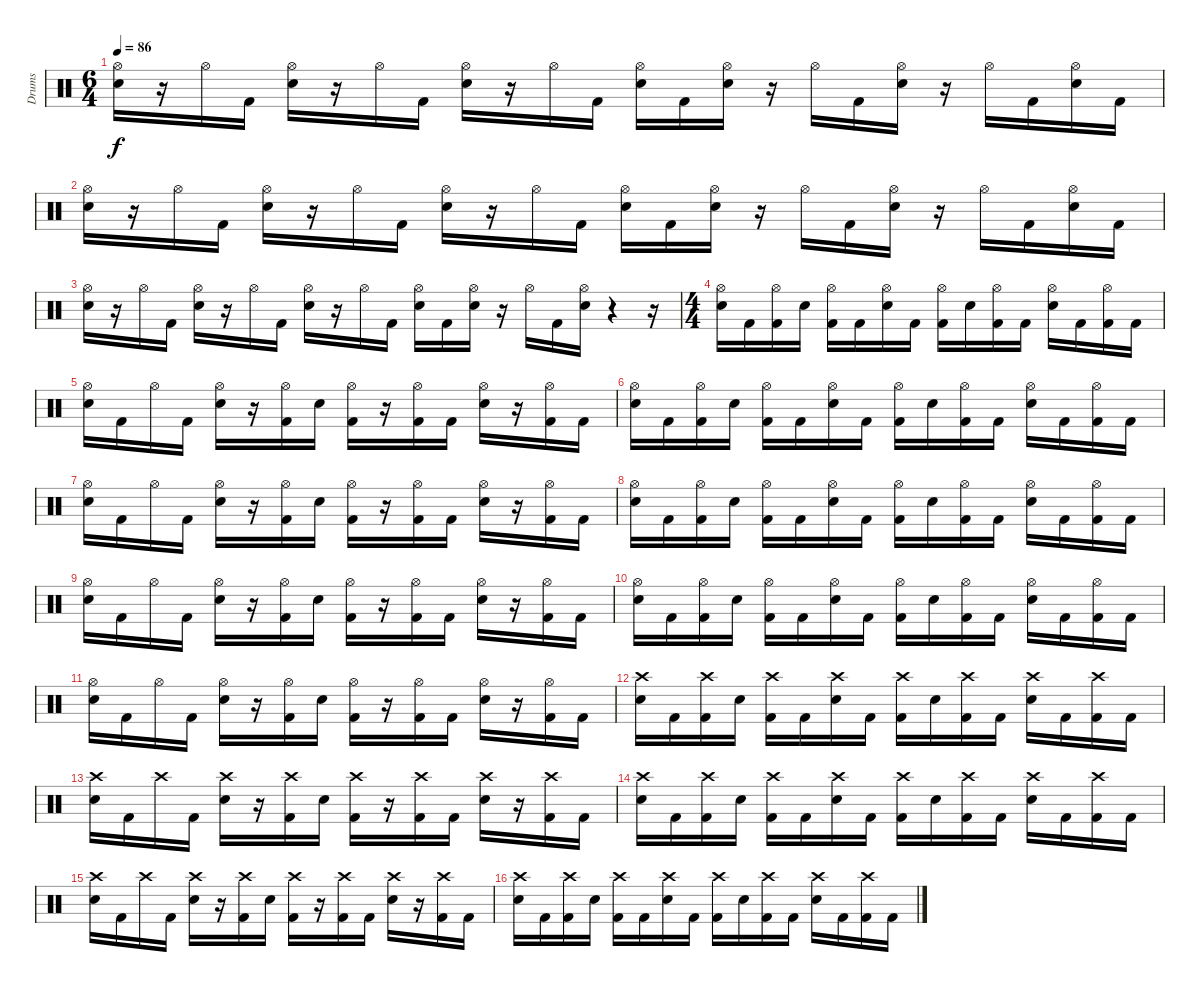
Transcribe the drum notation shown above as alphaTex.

\track ("Drums" "Drums") {instrument percussion}
\staff {score}
\articulation defaults
\ts (6 4)
\tempo 86
\clef neutral
\ks c
("Hi-Hat (open)" "Electric Snare (hit)").16{dy f} r.16 "Hi-Hat (open)".16 "Kick (hit) 2".16 ("Hi-Hat (open)" "Electric Snare (hit)").16 r.16 "Hi-Hat (open)".16 "Kick (hit) 2".16 ("Hi-Hat (open)" "Electric Snare (hit)").16 r.16 "Hi-Hat (open)".16 "Kick (hit) 2".16 ("Hi-Hat (open)" "Electric Snare (hit)").16 "Kick (hit) 2".16 ("Hi-Hat (open)" "Electric Snare (hit)").16 r.16 "Hi-Hat (open)".16 "Kick (hit) 2".16 ("Hi-Hat (open)" "Electric Snare (hit)").16 r.16 "Hi-Hat (open)".16 "Kick (hit) 2".16 ("Hi-Hat (open)" "Electric Snare (hit)").16 "Kick (hit) 2".16 |
("Hi-Hat (open)" "Electric Snare (hit)").16 r.16 "Hi-Hat (open)".16 "Kick (hit) 2".16 ("Hi-Hat (open)" "Electric Snare (hit)").16 r.16 "Hi-Hat (open)".16 "Kick (hit) 2".16 ("Hi-Hat (open)" "Electric Snare (hit)").16 r.16 "Hi-Hat (open)".16 "Kick (hit) 2".16 ("Hi-Hat (open)" "Electric Snare (hit)").16 "Kick (hit) 2".16 ("Hi-Hat (open)" "Electric Snare (hit)").16 r.16 "Hi-Hat (open)".16 "Kick (hit) 2".16 ("Hi-Hat (open)" "Electric Snare (hit)").16 r.16 "Hi-Hat (open)".16 "Kick (hit) 2".16 ("Hi-Hat (open)" "Electric Snare (hit)").16 "Kick (hit) 2".16 |
("Hi-Hat (open)" "Electric Snare (hit)").16 r.16 "Hi-Hat (open)".16 "Kick (hit) 2".16 ("Hi-Hat (open)" "Electric Snare (hit)").16 r.16 "Hi-Hat (open)".16 "Kick (hit) 2".16 ("Hi-Hat (open)" "Electric Snare (hit)").16 r.16 "Hi-Hat (open)".16 "Kick (hit) 2".16 ("Hi-Hat (open)" "Electric Snare (hit)").16 "Kick (hit) 2".16 ("Hi-Hat (open)" "Electric Snare (hit)").16 r.16 "Hi-Hat (open)".16 "Kick (hit) 2".16 ("Hi-Hat (open)" "Electric Snare (hit)").16 r.4 r.16 |
\ts (4 4)
("Hi-Hat (open)" "Electric Snare (hit)").16 "Kick (hit) 2".16 ("Hi-Hat (open)" "Kick (hit) 2").16 "Electric Snare (hit)".16 ("Hi-Hat (open)" "Kick (hit) 2").16 "Kick (hit) 2".16 ("Hi-Hat (open)" "Electric Snare (hit)").16 "Kick (hit) 2".16 ("Hi-Hat (open)" "Kick (hit) 2").16 "Electric Snare (hit)".16 ("Hi-Hat (open)" "Kick (hit) 2").16 "Kick (hit) 2".16 ("Hi-Hat (open)" "Electric Snare (hit)").16 "Kick (hit) 2".16 ("Hi-Hat (open)" "Kick (hit) 2").16 "Kick (hit) 2".16 |
("Hi-Hat (open)" "Electric Snare (hit)").16 "Kick (hit) 2".16 "Hi-Hat (open)".16 "Kick (hit) 2".16 ("Hi-Hat (open)" "Electric Snare (hit)").16 r.16 ("Hi-Hat (open)" "Kick (hit) 2").16 "Electric Snare (hit)".16 ("Hi-Hat (open)" "Kick (hit) 2").16 r.16 ("Hi-Hat (open)" "Kick (hit) 2").16 "Kick (hit) 2".16 ("Hi-Hat (open)" "Electric Snare (hit)").16 r.16 ("Hi-Hat (open)" "Kick (hit) 2").16 "Kick (hit) 2".16 |
("Hi-Hat (open)" "Electric Snare (hit)").16 "Kick (hit) 2".16 ("Hi-Hat (open)" "Kick (hit) 2").16 "Electric Snare (hit)".16 ("Hi-Hat (open)" "Kick (hit) 2").16 "Kick (hit) 2".16 ("Hi-Hat (open)" "Electric Snare (hit)").16 "Kick (hit) 2".16 ("Hi-Hat (open)" "Kick (hit) 2").16 "Electric Snare (hit)".16 ("Hi-Hat (open)" "Kick (hit) 2").16 "Kick (hit) 2".16 ("Hi-Hat (open)" "Electric Snare (hit)").16 "Kick (hit) 2".16 ("Hi-Hat (open)" "Kick (hit) 2").16 "Kick (hit) 2".16 |
("Hi-Hat (open)" "Electric Snare (hit)").16 "Kick (hit) 2".16 "Hi-Hat (open)".16 "Kick (hit) 2".16 ("Hi-Hat (open)" "Electric Snare (hit)").16 r.16 ("Hi-Hat (open)" "Kick (hit) 2").16 "Electric Snare (hit)".16 ("Hi-Hat (open)" "Kick (hit) 2").16 r.16 ("Hi-Hat (open)" "Kick (hit) 2").16 "Kick (hit) 2".16 ("Hi-Hat (open)" "Electric Snare (hit)").16 r.16 ("Hi-Hat (open)" "Kick (hit) 2").16 "Kick (hit) 2".16 |
("Hi-Hat (open)" "Electric Snare (hit)").16 "Kick (hit) 2".16 ("Hi-Hat (open)" "Kick (hit) 2").16 "Electric Snare (hit)".16 ("Hi-Hat (open)" "Kick (hit) 2").16 "Kick (hit) 2".16 ("Hi-Hat (open)" "Electric Snare (hit)").16 "Kick (hit) 2".16 ("Hi-Hat (open)" "Kick (hit) 2").16 "Electric Snare (hit)".16 ("Hi-Hat (open)" "Kick (hit) 2").16 "Kick (hit) 2".16 ("Hi-Hat (open)" "Electric Snare (hit)").16 "Kick (hit) 2".16 ("Hi-Hat (open)" "Kick (hit) 2").16 "Kick (hit) 2".16 |
("Hi-Hat (open)" "Electric Snare (hit)").16 "Kick (hit) 2".16 "Hi-Hat (open)".16 "Kick (hit) 2".16 ("Hi-Hat (open)" "Electric Snare (hit)").16 r.16 ("Hi-Hat (open)" "Kick (hit) 2").16 "Electric Snare (hit)".16 ("Hi-Hat (open)" "Kick (hit) 2").16 r.16 ("Hi-Hat (open)" "Kick (hit) 2").16 "Kick (hit) 2".16 ("Hi-Hat (open)" "Electric Snare (hit)").16 r.16 ("Hi-Hat (open)" "Kick (hit) 2").16 "Kick (hit) 2".16 |
("Hi-Hat (open)" "Electric Snare (hit)").16 "Kick (hit) 2".16 ("Hi-Hat (open)" "Kick (hit) 2").16 "Electric Snare (hit)".16 ("Hi-Hat (open)" "Kick (hit) 2").16 "Kick (hit) 2".16 ("Hi-Hat (open)" "Electric Snare (hit)").16 "Kick (hit) 2".16 ("Hi-Hat (open)" "Kick (hit) 2").16 "Electric Snare (hit)".16 ("Hi-Hat (open)" "Kick (hit) 2").16 "Kick (hit) 2".16 ("Hi-Hat (open)" "Electric Snare (hit)").16 "Kick (hit) 2".16 ("Hi-Hat (open)" "Kick (hit) 2").16 "Kick (hit) 2".16 |
("Hi-Hat (open)" "Electric Snare (hit)").16 "Kick (hit) 2".16 "Hi-Hat (open)".16 "Kick (hit) 2".16 ("Hi-Hat (open)" "Electric Snare (hit)").16 r.16 ("Hi-Hat (open)" "Kick (hit) 2").16 "Electric Snare (hit)".16 ("Hi-Hat (open)" "Kick (hit) 2").16 r.16 ("Hi-Hat (open)" "Kick (hit) 2").16 "Kick (hit) 2".16 ("Hi-Hat (open)" "Electric Snare (hit)").16 r.16 ("Hi-Hat (open)" "Kick (hit) 2").16 "Kick (hit) 2".16 |
("Crash high (hit)" "Electric Snare (hit)").16 "Kick (hit) 2".16 ("Crash high (hit)" "Kick (hit) 2").16 "Electric Snare (hit)".16 ("Crash high (hit)" "Kick (hit) 2").16 "Kick (hit) 2".16 ("Crash high (hit)" "Electric Snare (hit)").16 "Kick (hit) 2".16 ("Crash high (hit)" "Kick (hit) 2").16 "Electric Snare (hit)".16 ("Crash high (hit)" "Kick (hit) 2").16 "Kick (hit) 2".16 ("Crash high (hit)" "Electric Snare (hit)").16 "Kick (hit) 2".16 ("Crash high (hit)" "Kick (hit) 2").16 "Kick (hit) 2".16 |
("Crash high (hit)" "Electric Snare (hit)").16 "Kick (hit) 2".16 "Crash high (hit)".16 "Kick (hit) 2".16 ("Crash high (hit)" "Electric Snare (hit)").16 r.16 ("Crash high (hit)" "Kick (hit) 2").16 "Electric Snare (hit)".16 ("Crash high (hit)" "Kick (hit) 2").16 r.16 ("Crash high (hit)" "Kick (hit) 2").16 "Kick (hit) 2".16 ("Crash high (hit)" "Electric Snare (hit)").16 r.16 ("Crash high (hit)" "Kick (hit) 2").16 "Kick (hit) 2".16 |
("Crash high (hit)" "Electric Snare (hit)").16 "Kick (hit) 2".16 ("Crash high (hit)" "Kick (hit) 2").16 "Electric Snare (hit)".16 ("Crash high (hit)" "Kick (hit) 2").16 "Kick (hit) 2".16 ("Crash high (hit)" "Electric Snare (hit)").16 "Kick (hit) 2".16 ("Crash high (hit)" "Kick (hit) 2").16 "Electric Snare (hit)".16 ("Crash high (hit)" "Kick (hit) 2").16 "Kick (hit) 2".16 ("Crash high (hit)" "Electric Snare (hit)").16 "Kick (hit) 2".16 ("Crash high (hit)" "Kick (hit) 2").16 "Kick (hit) 2".16 |
("Crash high (hit)" "Electric Snare (hit)").16 "Kick (hit) 2".16 "Crash high (hit)".16 "Kick (hit) 2".16 ("Crash high (hit)" "Electric Snare (hit)").16 r.16 ("Crash high (hit)" "Kick (hit) 2").16 "Electric Snare (hit)".16 ("Crash high (hit)" "Kick (hit) 2").16 r.16 ("Crash high (hit)" "Kick (hit) 2").16 "Kick (hit) 2".16 ("Crash high (hit)" "Electric Snare (hit)").16 r.16 ("Crash high (hit)" "Kick (hit) 2").16 "Kick (hit) 2".16 |
("Crash high (hit)" "Electric Snare (hit)").16 "Kick (hit) 2".16 ("Crash high (hit)" "Kick (hit) 2").16 "Electric Snare (hit)".16 ("Crash high (hit)" "Kick (hit) 2").16 "Kick (hit) 2".16 ("Crash high (hit)" "Electric Snare (hit)").16 "Kick (hit) 2".16 ("Crash high (hit)" "Kick (hit) 2").16 "Electric Snare (hit)".16 ("Crash high (hit)" "Kick (hit) 2").16 "Kick (hit) 2".16 ("Crash high (hit)" "Electric Snare (hit)").16 "Kick (hit) 2".16 ("Crash high (hit)" "Kick (hit) 2").16 "Kick (hit) 2".16
